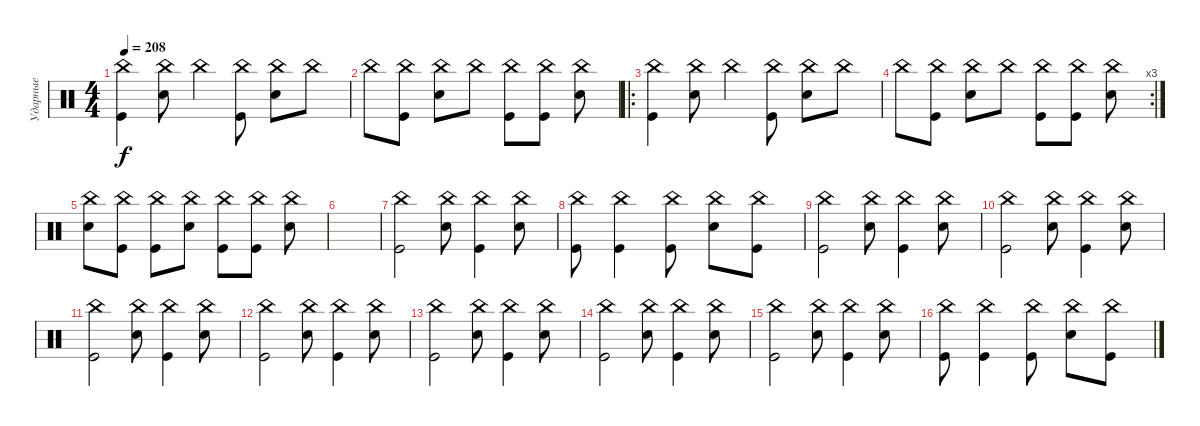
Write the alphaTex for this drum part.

\track ("Ударные" "Ударные") {instrument percussion}
\staff {score}
\articulation defaults
\ts (4 4)
\tempo 208
\clef neutral
\ks c
("Kick (hit)" "China (hit)").4{dy f} ("Snare (hit) 2" "China (hit)").8 "China (hit)".4 ("Kick (hit)" "China (hit)").8 ("Snare (hit) 2" "China (hit)").8 "China (hit)".8 |
"China (hit)".8 ("Kick (hit)" "China (hit)").8 ("Snare (hit) 2" "China (hit)").8 "China (hit)".8 ("Kick (hit)" "China (hit)").8 ("Kick (hit)" "China (hit)").8 ("Snare (hit) 2" "China (hit)").8 |
\ro
("Kick (hit)" "China (hit)").4 ("Snare (hit) 2" "China (hit)").8 "China (hit)".4 ("Kick (hit)" "China (hit)").8 ("Snare (hit) 2" "China (hit)").8 "China (hit)".8 |
\rc 3 "China (hit)".8
("Kick (hit)" "China (hit)").8 ("Snare (hit) 2" "China (hit)").8 "China (hit)".8 ("Kick (hit)" "China (hit)").8 ("Kick (hit)" "China (hit)").8 ("Snare (hit) 2" "China (hit)").8 |
("Snare (hit) 2" "China (hit)").8 ("Kick (hit)" "China (hit)").8 ("Kick (hit)" "China (hit)").8 ("Snare (hit) 2" "China (hit)").8 ("Kick (hit)" "China (hit)").8 ("Kick (hit)" "China (hit)").8 ("Snare (hit) 2" "China (hit)").8 |
|
("Kick (hit)" "China (hit)").2 ("Snare (hit) 2" "China (hit)").8 ("Kick (hit)" "China (hit)").4 ("Snare (hit) 2" "China (hit)").8 |
("Kick (hit)" "China (hit)").8 ("Kick (hit)" "China (hit)").4 ("Kick (hit)" "China (hit)").8 ("Snare (hit) 2" "China (hit)").8 ("Kick (hit)" "China (hit)").8 |
("Kick (hit)" "China (hit)").2 ("Snare (hit) 2" "China (hit)").8 ("Kick (hit)" "China (hit)").4 ("Snare (hit) 2" "China (hit)").8 |
("Kick (hit)" "China (hit)").2 ("Snare (hit) 2" "China (hit)").8 ("Kick (hit)" "China (hit)").4 ("Snare (hit) 2" "China (hit)").8 |
("Kick (hit)" "China (hit)").2 ("Snare (hit) 2" "China (hit)").8 ("Kick (hit)" "China (hit)").4 ("Snare (hit) 2" "China (hit)").8 |
("Kick (hit)" "China (hit)").2 ("Snare (hit) 2" "China (hit)").8 ("Kick (hit)" "China (hit)").4 ("Snare (hit) 2" "China (hit)").8 |
("Kick (hit)" "China (hit)").2 ("Snare (hit) 2" "China (hit)").8 ("Kick (hit)" "China (hit)").4 ("Snare (hit) 2" "China (hit)").8 |
("Kick (hit)" "China (hit)").2 ("Snare (hit) 2" "China (hit)").8 ("Kick (hit)" "China (hit)").4 ("Snare (hit) 2" "China (hit)").8 |
("Kick (hit)" "China (hit)").2 ("Snare (hit) 2" "China (hit)").8 ("Kick (hit)" "China (hit)").4 ("Snare (hit) 2" "China (hit)").8 |
("Kick (hit)" "China (hit)").8 ("Kick (hit)" "China (hit)").4 ("Kick (hit)" "China (hit)").8 ("Snare (hit) 2" "China (hit)").8 ("Kick (hit)" "China (hit)").8
